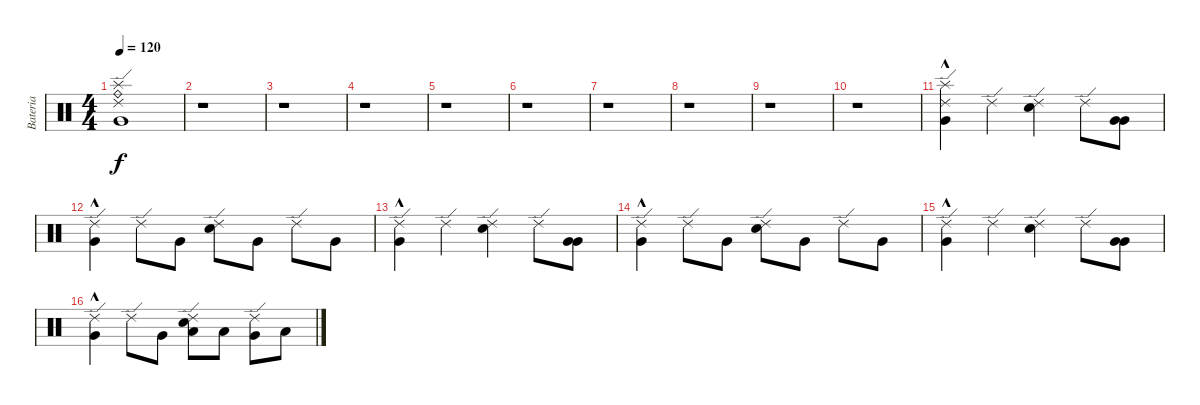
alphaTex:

\track ("Bateria" "Bateria") {instrument percussion}
\staff {score}
\articulation defaults
\ts (4 4)
\tempo 120
\clef neutral
\ks c
("Ride (edge) 2" "Ride (bell)" "Very Low Tom (hit)" "Splash (hit)").1{dy f} |
r.1 |
r.1 |
r.1 |
r.1 |
r.1 |
r.1 |
r.1 |
r.1 |
r.1 |
("Splash (hit)" "Ride (edge) 2" "Very Low Tom (hit)"{hac}).4 "Ride (edge) 2".4 ("Ride (edge) 2" "Snare (hit) 2").4 "Ride (edge) 2".8 ("Very Low Tom (hit)" "Very Low Tom (hit)").8 |
("Ride (edge) 2" "Very Low Tom (hit)"{hac}).4 "Ride (edge) 2".8 "Very Low Tom (hit)".8 ("Snare (hit) 2" "Ride (edge) 2").8 "Very Low Tom (hit)".8 "Ride (edge) 2".8 "Very Low Tom (hit)".8 |
("Ride (edge) 2" "Very Low Tom (hit)"{hac}).4 "Ride (edge) 2".4 ("Ride (edge) 2" "Snare (hit) 2").4 "Ride (edge) 2".8 ("Very Low Tom (hit)" "Very Low Tom (hit)").8 |
("Ride (edge) 2" "Very Low Tom (hit)"{hac}).4 "Ride (edge) 2".8 "Very Low Tom (hit)".8 ("Snare (hit) 2" "Ride (edge) 2").8 "Very Low Tom (hit)".8 "Ride (edge) 2".8 "Very Low Tom (hit)".8 |
("Ride (edge) 2" "Very Low Tom (hit)"{hac}).4 "Ride (edge) 2".4 ("Ride (edge) 2" "Snare (hit) 2").4 "Ride (edge) 2".8 ("Very Low Tom (hit)" "Very Low Tom (hit)").8 |
("Ride (edge) 2" "Very Low Tom (hit)"{hac}).4 "Ride (edge) 2".8 "Very Low Tom (hit)".8 ("Low Tom (hit)" "Snare (hit) 2" "Ride (edge) 2").8 "Low Tom (hit)".8 ("Very Low Tom (hit)" "Ride (edge) 2").8 "Low Floor Tom (hit)".8
